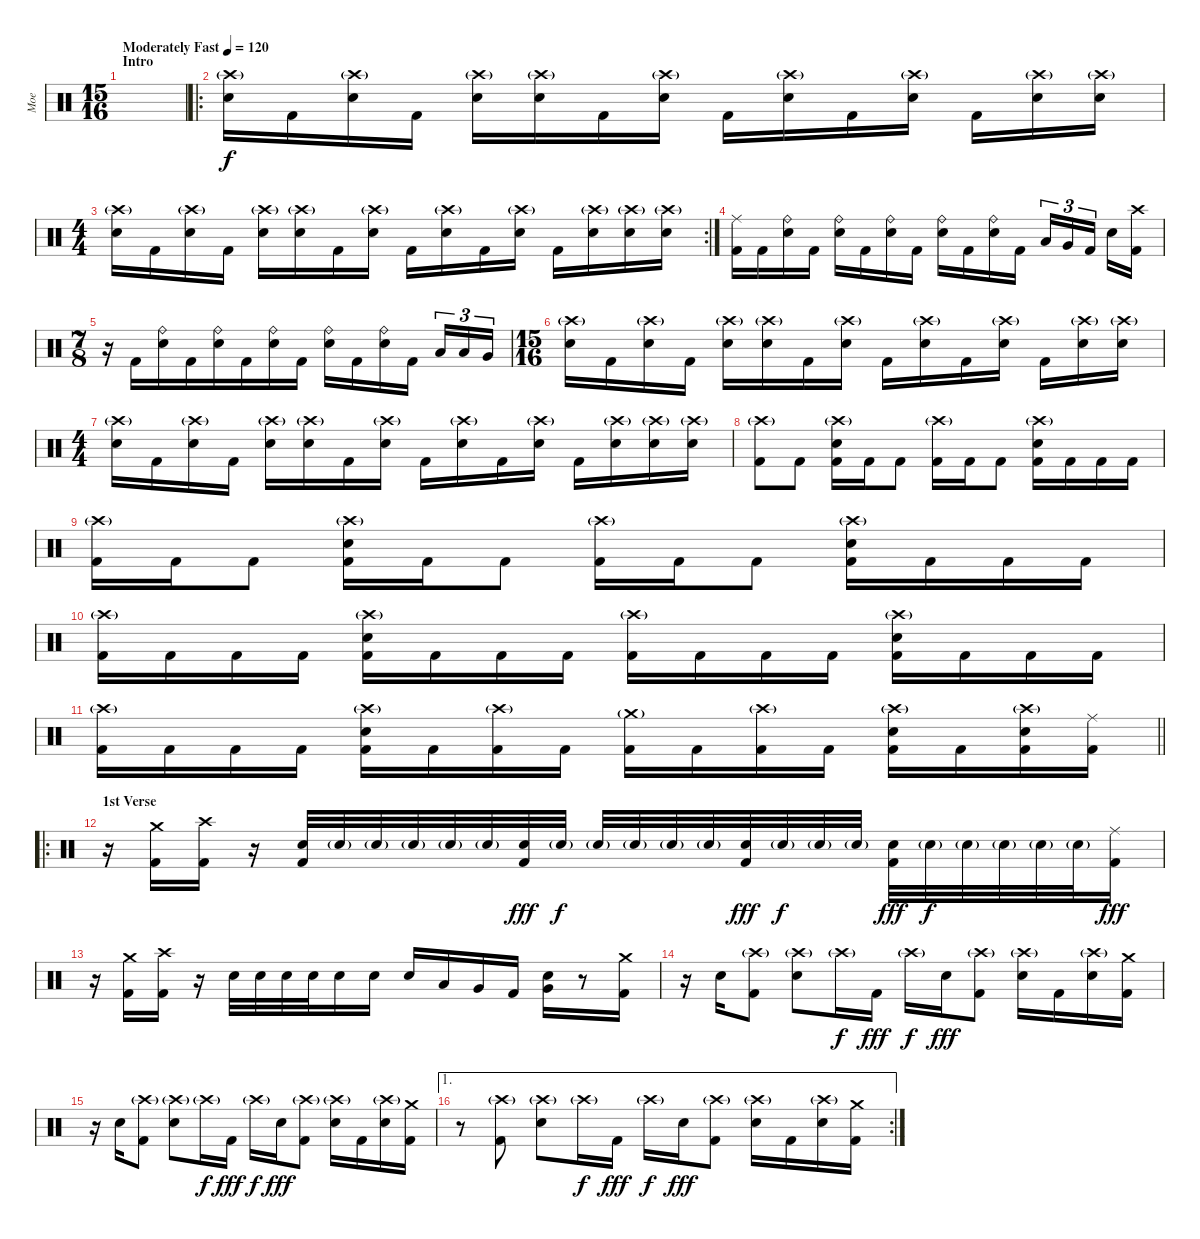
\track ("Moe" "Moe") {instrument percussion}
\staff {score}
\articulation defaults
\ts (15 16)
\section ("" "Intro")
\tempo (120 "Moderately Fast")
\clef neutral
\ks c
|
\ro
("Crash high (hit)"{g} "Electric Snare (hit)").16 "Kick (hit) 2".16 ("Crash high (hit)"{g} "Electric Snare (hit)").16 "Kick (hit) 2".16 ("Crash high (hit)"{g} "Electric Snare (hit)").16 ("Crash high (hit)"{g} "Electric Snare (hit)").16 "Kick (hit) 2".16 ("Crash high (hit)"{g} "Electric Snare (hit)").16 "Kick (hit) 2".16 ("Crash high (hit)"{g} "Electric Snare (hit)").16 "Kick (hit) 2".16 ("Crash high (hit)"{g} "Electric Snare (hit)").16 "Kick (hit) 2".16 ("Crash high (hit)"{g} "Electric Snare (hit)").16 ("Crash high (hit)"{g} "Electric Snare (hit)").16 |
\rc 2
\ts (4 4)
("Crash high (hit)"{g} "Electric Snare (hit)").16 "Kick (hit) 2".16 ("Crash high (hit)"{g} "Electric Snare (hit)").16 "Kick (hit) 2".16 ("Crash high (hit)"{g} "Electric Snare (hit)").16 ("Crash high (hit)"{g} "Electric Snare (hit)").16 "Kick (hit) 2".16 ("Crash high (hit)"{g} "Electric Snare (hit)").16 "Kick (hit) 2".16 ("Crash high (hit)"{g} "Electric Snare (hit)").16 "Kick (hit) 2".16 ("Crash high (hit)"{g} "Electric Snare (hit)").16 "Kick (hit) 2".16 ("Crash high (hit)"{g} "Electric Snare (hit)").16 ("Crash high (hit)"{g} "Electric Snare (hit)").16 ("Crash high (hit)"{g} "Electric Snare (hit)").16 |
("Ride (middle)" "Kick (hit) 2").16 "Kick (hit) 2".16 ("Ride (bell)" "Electric Snare (hit)").16 "Kick (hit) 2".16 ("Ride (bell)" "Electric Snare (hit)").16 "Kick (hit) 2".16 ("Ride (bell)" "Electric Snare (hit)").16 "Kick (hit) 2".16 ("Ride (bell)" "Electric Snare (hit)").16 "Kick (hit) 2".16 ("Ride (bell)" "Electric Snare (hit)").16 "Kick (hit) 2".16 "Low Tom (hit)".16{tu (3 2)} "Very Low Tom (hit)".16{tu (3 2)} "Kick (hit) 2".16{tu (3 2) beam splitsecondary} "Electric Snare (hit)".16 ("Crash high (hit)" "Kick (hit) 2").16 |
\ts (7 8)
r.16 "Kick (hit) 2".16 ("Ride (bell)" "Electric Snare (hit)").16 "Kick (hit) 2".16 ("Ride (bell)" "Electric Snare (hit)").16 "Kick (hit) 2".16 ("Ride (bell)" "Electric Snare (hit)").16 "Kick (hit) 2".16 ("Ride (bell)" "Electric Snare (hit)").16 "Kick (hit) 2".16 ("Ride (bell)" "Electric Snare (hit)").16 "Kick (hit) 2".16 "Low Tom (hit)".16{tu (3 2)} "Low Tom (hit)".16{tu (3 2)} "Very Low Tom (hit)".16{tu (3 2)} |
\ts (15 16)
("Crash high (hit)"{g} "Electric Snare (hit)").16 "Kick (hit) 2".16 ("Crash high (hit)"{g} "Electric Snare (hit)").16 "Kick (hit) 2".16 ("Crash high (hit)"{g} "Electric Snare (hit)").16 ("Crash high (hit)"{g} "Electric Snare (hit)").16 "Kick (hit) 2".16 ("Crash high (hit)"{g} "Electric Snare (hit)").16 "Kick (hit) 2".16 ("Crash high (hit)"{g} "Electric Snare (hit)").16 "Kick (hit) 2".16 ("Crash high (hit)"{g} "Electric Snare (hit)").16 "Kick (hit) 2".16 ("Crash high (hit)"{g} "Electric Snare (hit)").16 ("Crash high (hit)"{g} "Electric Snare (hit)").16 |
\ts (4 4)
("Crash high (hit)"{g} "Electric Snare (hit)").16 "Kick (hit) 2".16 ("Crash high (hit)"{g} "Electric Snare (hit)").16 "Kick (hit) 2".16 ("Crash high (hit)"{g} "Electric Snare (hit)").16 ("Crash high (hit)"{g} "Electric Snare (hit)").16 "Kick (hit) 2".16 ("Crash high (hit)"{g} "Electric Snare (hit)").16 "Kick (hit) 2".16 ("Crash high (hit)"{g} "Electric Snare (hit)").16 "Kick (hit) 2".16 ("Crash high (hit)"{g} "Electric Snare (hit)").16 "Kick (hit) 2".16 ("Crash high (hit)"{g} "Electric Snare (hit)").16 ("Crash high (hit)"{g} "Electric Snare (hit)").16 ("Crash high (hit)"{g} "Electric Snare (hit)").16 |
("Crash high (hit)"{g} "Kick (hit) 2").8 "Kick (hit) 2".8 ("Crash high (hit)"{g} "Electric Snare (hit)" "Kick (hit) 2").16 "Kick (hit) 2".16 "Kick (hit) 2".8 ("Crash high (hit)"{g} "Kick (hit) 2").16 "Kick (hit) 2".16 "Kick (hit) 2".8 ("Crash high (hit)"{g} "Electric Snare (hit)" "Kick (hit) 2").16 "Kick (hit) 2".16 "Kick (hit) 2".16 "Kick (hit) 2".16 |
("Crash high (hit)"{g} "Kick (hit) 2").16 "Kick (hit) 2".16 "Kick (hit) 2".8 ("Crash high (hit)"{g} "Electric Snare (hit)" "Kick (hit) 2").16 "Kick (hit) 2".16 "Kick (hit) 2".8 ("Crash high (hit)"{g} "Kick (hit) 2").16 "Kick (hit) 2".16 "Kick (hit) 2".8 ("Crash high (hit)"{g} "Electric Snare (hit)" "Kick (hit) 2").16 "Kick (hit) 2".16 "Kick (hit) 2".16 "Kick (hit) 2".16 |
("Crash high (hit)"{g} "Kick (hit) 2").16 "Kick (hit) 2".16 "Kick (hit) 2".16 "Kick (hit) 2".16 ("Crash high (hit)"{g} "Electric Snare (hit)" "Kick (hit) 2").16 "Kick (hit) 2".16 "Kick (hit) 2".16 "Kick (hit) 2".16 ("Crash high (hit)"{g} "Kick (hit) 2").16 "Kick (hit) 2".16 "Kick (hit) 2".16 "Kick (hit) 2".16 ("Crash high (hit)"{g} "Electric Snare (hit)" "Kick (hit) 2").16 "Kick (hit) 2".16 "Kick (hit) 2".16 "Kick (hit) 2".16 |
\barLineRight lightlight
("Crash high (hit)"{g} "Kick (hit) 2").16 "Kick (hit) 2".16 "Kick (hit) 2".16 "Kick (hit) 2".16 ("Crash high (hit)"{g} "Electric Snare (hit)" "Kick (hit) 2").16 "Kick (hit) 2".16 ("Crash high (hit)"{g} "Kick (hit) 2").16 "Kick (hit) 2".16 ("Crash medium (hit)"{g} "Kick (hit) 2").16 "Kick (hit) 2".16 ("Crash high (hit)"{g} "Kick (hit) 2").16 "Kick (hit) 2".16 ("Crash high (hit)"{g} "Electric Snare (hit)" "Kick (hit) 2").16 "Kick (hit) 2".16 ("Crash high (hit)"{g} "Electric Snare (hit)" "Kick (hit) 2").16 ("Ride (middle)" "Kick (hit) 2").16 |
\ro
\section ("" "1st Verse")
r.16 ("Crash medium (hit)" "Kick (hit) 2").16 ("Crash high (hit)" "Kick (hit) 2").16 r.16 ("Electric Snare (hit)" "Kick (hit) 2").32 "Electric Snare (hit)"{g}.32{dy f} "Electric Snare (hit)"{g}.32 "Electric Snare (hit)"{g}.32 "Electric Snare (hit)"{g}.32 "Electric Snare (hit)"{g}.32 ("Electric Snare (hit)" "Kick (hit) 2").32{dy fff} "Electric Snare (hit)"{g}.32{dy f} "Electric Snare (hit)"{g}.32 "Electric Snare (hit)"{g}.32 "Electric Snare (hit)"{g}.32 "Electric Snare (hit)"{g}.32 ("Electric Snare (hit)" "Kick (hit) 2").32{dy fff} "Electric Snare (hit)"{g}.32{dy f} "Electric Snare (hit)"{g}.32 "Electric Snare (hit)"{g}.32 ("Electric Snare (hit)" "Kick (hit) 2").32{dy fff} "Electric Snare (hit)"{g}.32{dy f} "Electric Snare (hit)"{g}.32 "Electric Snare (hit)"{g}.32 "Electric Snare (hit)"{g}.32 "Electric Snare (hit)"{g}.32 ("Ride (middle)" "Kick (hit) 2").16{dy fff} |
r.16 ("Crash medium (hit)" "Kick (hit) 2").16 ("Crash high (hit)" "Kick (hit) 2").16 r.16 "Electric Snare (hit)".32 "Electric Snare (hit)".32 "Electric Snare (hit)".32 "Electric Snare (hit)".32 "Electric Snare (hit)".16 "Electric Snare (hit)".16 "Electric Snare (hit)".16 "Low Tom (hit)".16 "Very Low Tom (hit)".16 "Kick (hit) 2".16 ("Electric Snare (hit)" "Very Low Tom (hit)").16 r.8 ("Crash medium (hit)" "Kick (hit) 2").16 |
r.16 "Electric Snare (hit)".16 ("Crash high (hit)"{g} "Kick (hit) 2").8 ("Crash high (hit)"{g} "Electric Snare (hit)").8 "Crash high (hit)"{g}.16{dy f} "Kick (hit) 2".16{dy fff} "Crash high (hit)"{g}.16{dy f} "Electric Snare (hit)".16{dy fff} ("Crash high (hit)"{g} "Kick (hit) 2").8 ("Crash high (hit)"{g} "Electric Snare (hit)").16 "Kick (hit) 2".16 ("Crash high (hit)"{g} "Electric Snare (hit)").16 ("Crash medium (hit)" "Kick (hit) 2").16 |
r.16 "Electric Snare (hit)".16 ("Crash high (hit)"{g} "Kick (hit) 2").8 ("Crash high (hit)"{g} "Electric Snare (hit)").8 "Crash high (hit)"{g}.16{dy f} "Kick (hit) 2".16{dy fff} "Crash high (hit)"{g}.16{dy f} "Electric Snare (hit)".16{dy fff} ("Crash high (hit)"{g} "Kick (hit) 2").8 ("Crash high (hit)"{g} "Electric Snare (hit)").16 "Kick (hit) 2".16 ("Crash high (hit)"{g} "Electric Snare (hit)").16 ("Crash medium (hit)" "Kick (hit) 2").16 |
\ae 1
\rc 2
r.8 ("Crash high (hit)"{g} "Kick (hit) 2").8 ("Crash high (hit)"{g} "Electric Snare (hit)").8 "Crash high (hit)"{g}.16{dy f} "Kick (hit) 2".16{dy fff} "Crash high (hit)"{g}.16{dy f} "Electric Snare (hit)".16{dy fff} ("Crash high (hit)"{g} "Kick (hit) 2").8 ("Crash high (hit)"{g} "Electric Snare (hit)").16 "Kick (hit) 2".16 ("Crash high (hit)"{g} "Electric Snare (hit)").16 ("Crash medium (hit)" "Kick (hit) 2").16
